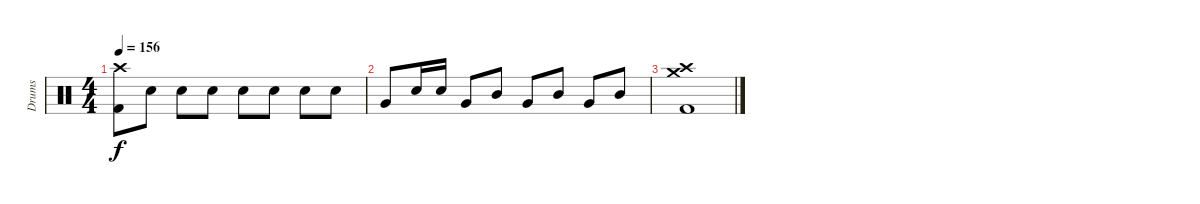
\track ("Drums" "Drums") {instrument percussion}
\staff {score}
\articulation defaults
\ts (4 4)
\tempo 156
\clef neutral
\ks c
("Crash high (hit)" "Kick (hit) 2").8{dy f} "Electric Snare (hit)".8 "Electric Snare (hit)".8 "Electric Snare (hit)".8 "Electric Snare (hit)".8 "Electric Snare (hit)".8 "Electric Snare (hit)".8 "Electric Snare (hit)".8 |
"Very Low Tom (hit)".8 "Electric Snare (hit)".16 "Electric Snare (hit)".16 "Very Low Tom (hit)".8 "Mid Tom (hit)".8 "Very Low Tom (hit)".8 "Mid Tom (hit)".8 "Very Low Tom (hit)".8 "Mid Tom (hit)".8 |
("Crash high (hit)" "Crash medium (hit)" "Kick (hit) 2").1
